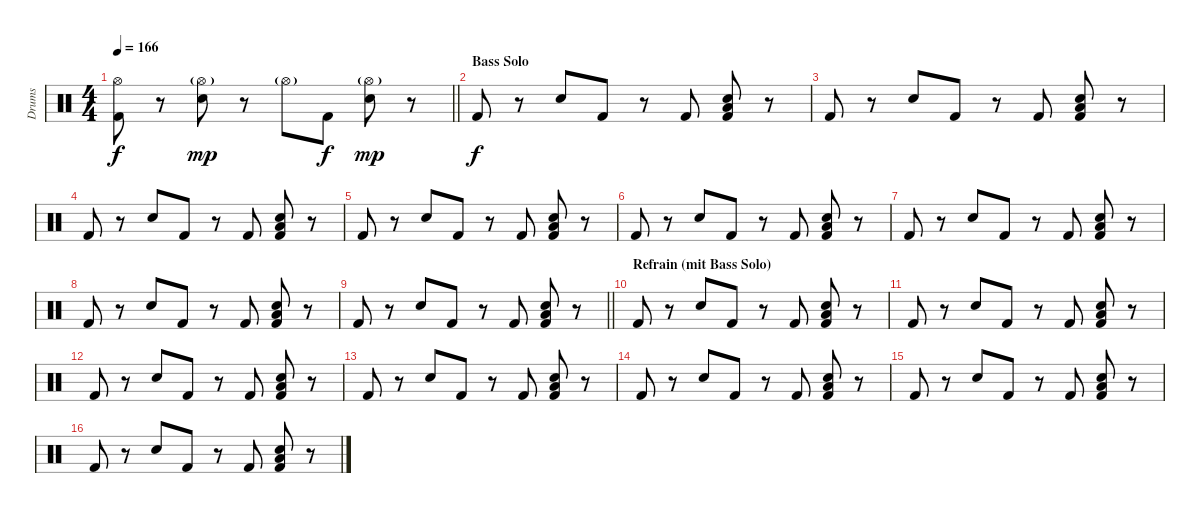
\track ("Drums" "Drums") {instrument percussion}
\staff {score}
\articulation defaults
\ts (4 4)
\tempo 166
\clef neutral
\barLineRight lightlight
\ks c
("Hi-Hat (open)" "Kick (hit) 2").8{dy f} r.8 ("Hi-Hat (open)"{g} "Electric Snare (hit)").8{dy mp} r.8 "Hi-Hat (open)"{g}.8 "Kick (hit) 2".8{dy f} ("Hi-Hat (open)"{g} "Electric Snare (hit)").8{dy mp} r.8 |
\section ("" "Bass Solo")
"Kick (hit) 2".8{dy f} r.8 "Electric Snare (hit)".8 "Kick (hit) 2".8 r.8 "Kick (hit) 2".8 ("Kick (hit) 2" "Low Floor Tom (hit)" "Electric Snare (hit)").8 r.8 |
"Kick (hit) 2".8 r.8 "Electric Snare (hit)".8 "Kick (hit) 2".8 r.8 "Kick (hit) 2".8 ("Kick (hit) 2" "Low Floor Tom (hit)" "Electric Snare (hit)").8 r.8 |
"Kick (hit) 2".8 r.8 "Electric Snare (hit)".8 "Kick (hit) 2".8 r.8 "Kick (hit) 2".8 ("Kick (hit) 2" "Low Floor Tom (hit)" "Electric Snare (hit)").8 r.8 |
"Kick (hit) 2".8 r.8 "Electric Snare (hit)".8 "Kick (hit) 2".8 r.8 "Kick (hit) 2".8 ("Kick (hit) 2" "Low Floor Tom (hit)" "Electric Snare (hit)").8 r.8 |
"Kick (hit) 2".8 r.8 "Electric Snare (hit)".8 "Kick (hit) 2".8 r.8 "Kick (hit) 2".8 ("Kick (hit) 2" "Low Floor Tom (hit)" "Electric Snare (hit)").8 r.8 |
"Kick (hit) 2".8 r.8 "Electric Snare (hit)".8 "Kick (hit) 2".8 r.8 "Kick (hit) 2".8 ("Kick (hit) 2" "Low Floor Tom (hit)" "Electric Snare (hit)").8 r.8 |
"Kick (hit) 2".8 r.8 "Electric Snare (hit)".8 "Kick (hit) 2".8 r.8 "Kick (hit) 2".8 ("Kick (hit) 2" "Low Floor Tom (hit)" "Electric Snare (hit)").8 r.8 |
\barLineRight lightlight "Kick (hit) 2".8
r.8 "Electric Snare (hit)".8 "Kick (hit) 2".8 r.8 "Kick (hit) 2".8 ("Kick (hit) 2" "Low Floor Tom (hit)" "Electric Snare (hit)").8 r.8 |
\section ("" "Refrain (mit Bass Solo)")
"Kick (hit) 2".8 r.8 "Electric Snare (hit)".8 "Kick (hit) 2".8 r.8 "Kick (hit) 2".8 ("Kick (hit) 2" "Low Floor Tom (hit)" "Electric Snare (hit)").8 r.8 |
"Kick (hit) 2".8 r.8 "Electric Snare (hit)".8 "Kick (hit) 2".8 r.8 "Kick (hit) 2".8 ("Kick (hit) 2" "Low Floor Tom (hit)" "Electric Snare (hit)").8 r.8 |
"Kick (hit) 2".8 r.8 "Electric Snare (hit)".8 "Kick (hit) 2".8 r.8 "Kick (hit) 2".8 ("Kick (hit) 2" "Low Floor Tom (hit)" "Electric Snare (hit)").8 r.8 |
"Kick (hit) 2".8 r.8 "Electric Snare (hit)".8 "Kick (hit) 2".8 r.8 "Kick (hit) 2".8 ("Kick (hit) 2" "Low Floor Tom (hit)" "Electric Snare (hit)").8 r.8 |
"Kick (hit) 2".8 r.8 "Electric Snare (hit)".8 "Kick (hit) 2".8 r.8 "Kick (hit) 2".8 ("Kick (hit) 2" "Low Floor Tom (hit)" "Electric Snare (hit)").8 r.8 |
"Kick (hit) 2".8 r.8 "Electric Snare (hit)".8 "Kick (hit) 2".8 r.8 "Kick (hit) 2".8 ("Kick (hit) 2" "Low Floor Tom (hit)" "Electric Snare (hit)").8 r.8 |
"Kick (hit) 2".8 r.8 "Electric Snare (hit)".8 "Kick (hit) 2".8 r.8 "Kick (hit) 2".8 ("Kick (hit) 2" "Low Floor Tom (hit)" "Electric Snare (hit)").8 r.8{volume 5}
